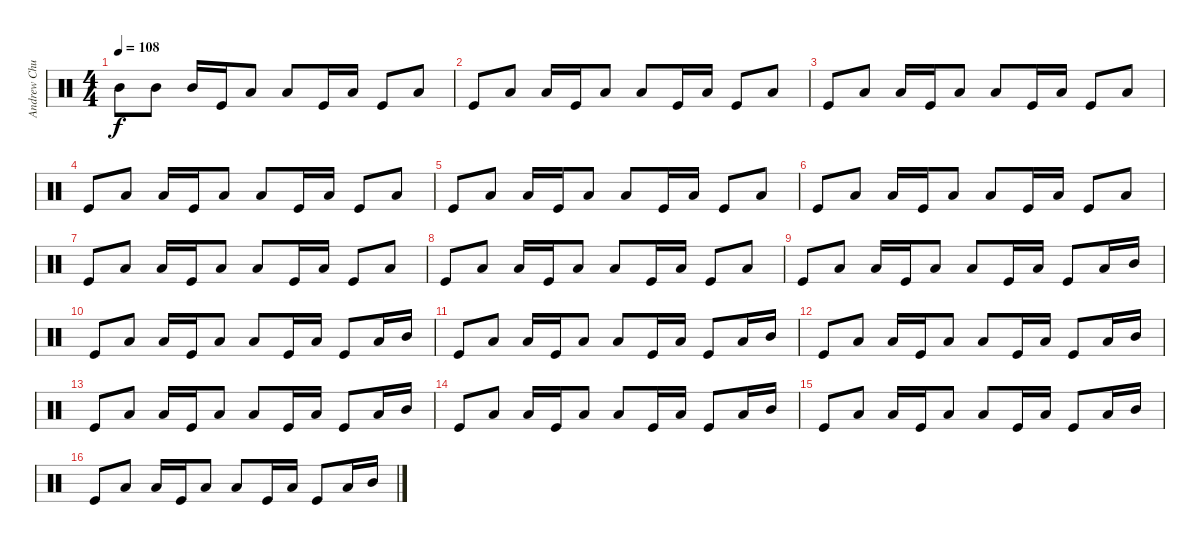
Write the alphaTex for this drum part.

\track ("Andrew Chudy - Bassdrum" "Andrew Chu") {instrument percussion}
\staff {score}
\articulation defaults
\ts (4 4)
\tempo 108
\clef neutral
\ks c "Mid Tom (hit)".8{dy f} "Mid Tom (hit)".8 "Mid Tom (hit)".16 "Kick (hit)".16 "Low Floor Tom (hit)".8 "Low Floor Tom (hit)".8 "Kick (hit)".16 "Low Floor Tom (hit)".16 "Kick (hit)".8 "Low Floor Tom (hit)".8
|
"Kick (hit)".8 "Low Floor Tom (hit)".8 "Low Floor Tom (hit)".16 "Kick (hit)".16 "Low Floor Tom (hit)".8 "Low Floor Tom (hit)".8 "Kick (hit)".16 "Low Floor Tom (hit)".16 "Kick (hit)".8 "Low Floor Tom (hit)".8 |
"Kick (hit)".8 "Low Floor Tom (hit)".8 "Low Floor Tom (hit)".16 "Kick (hit)".16 "Low Floor Tom (hit)".8 "Low Floor Tom (hit)".8 "Kick (hit)".16 "Low Floor Tom (hit)".16 "Kick (hit)".8 "Low Floor Tom (hit)".8 |
"Kick (hit)".8 "Low Floor Tom (hit)".8 "Low Floor Tom (hit)".16 "Kick (hit)".16 "Low Floor Tom (hit)".8 "Low Floor Tom (hit)".8 "Kick (hit)".16 "Low Floor Tom (hit)".16 "Kick (hit)".8 "Low Floor Tom (hit)".8 |
"Kick (hit)".8 "Low Floor Tom (hit)".8 "Low Floor Tom (hit)".16 "Kick (hit)".16 "Low Floor Tom (hit)".8 "Low Floor Tom (hit)".8 "Kick (hit)".16 "Low Floor Tom (hit)".16 "Kick (hit)".8 "Low Floor Tom (hit)".8 |
"Kick (hit)".8 "Low Floor Tom (hit)".8 "Low Floor Tom (hit)".16 "Kick (hit)".16 "Low Floor Tom (hit)".8 "Low Floor Tom (hit)".8 "Kick (hit)".16 "Low Floor Tom (hit)".16 "Kick (hit)".8 "Low Floor Tom (hit)".8 |
"Kick (hit)".8 "Low Floor Tom (hit)".8 "Low Floor Tom (hit)".16 "Kick (hit)".16 "Low Floor Tom (hit)".8 "Low Floor Tom (hit)".8 "Kick (hit)".16 "Low Floor Tom (hit)".16 "Kick (hit)".8 "Low Floor Tom (hit)".8 |
"Kick (hit)".8 "Low Floor Tom (hit)".8 "Low Floor Tom (hit)".16 "Kick (hit)".16 "Low Floor Tom (hit)".8 "Low Floor Tom (hit)".8 "Kick (hit)".16 "Low Floor Tom (hit)".16 "Kick (hit)".8 "Low Floor Tom (hit)".8 |
"Kick (hit)".8 "Low Floor Tom (hit)".8 "Low Floor Tom (hit)".16 "Kick (hit)".16 "Low Floor Tom (hit)".8 "Low Floor Tom (hit)".8 "Kick (hit)".16 "Low Floor Tom (hit)".16 "Kick (hit)".8 "Low Floor Tom (hit)".16 "Mid Tom (hit)".16 |
"Kick (hit)".8 "Low Floor Tom (hit)".8 "Low Floor Tom (hit)".16 "Kick (hit)".16 "Low Floor Tom (hit)".8 "Low Floor Tom (hit)".8 "Kick (hit)".16 "Low Floor Tom (hit)".16 "Kick (hit)".8 "Low Floor Tom (hit)".16 "Mid Tom (hit)".16 |
"Kick (hit)".8 "Low Floor Tom (hit)".8 "Low Floor Tom (hit)".16 "Kick (hit)".16 "Low Floor Tom (hit)".8 "Low Floor Tom (hit)".8 "Kick (hit)".16 "Low Floor Tom (hit)".16 "Kick (hit)".8 "Low Floor Tom (hit)".16 "Mid Tom (hit)".16 |
"Kick (hit)".8 "Low Floor Tom (hit)".8 "Low Floor Tom (hit)".16 "Kick (hit)".16 "Low Floor Tom (hit)".8 "Low Floor Tom (hit)".8 "Kick (hit)".16 "Low Floor Tom (hit)".16 "Kick (hit)".8 "Low Floor Tom (hit)".16 "Mid Tom (hit)".16 |
"Kick (hit)".8 "Low Floor Tom (hit)".8 "Low Floor Tom (hit)".16 "Kick (hit)".16 "Low Floor Tom (hit)".8 "Low Floor Tom (hit)".8 "Kick (hit)".16 "Low Floor Tom (hit)".16 "Kick (hit)".8 "Low Floor Tom (hit)".16 "Mid Tom (hit)".16 |
"Kick (hit)".8 "Low Floor Tom (hit)".8 "Low Floor Tom (hit)".16 "Kick (hit)".16 "Low Floor Tom (hit)".8 "Low Floor Tom (hit)".8 "Kick (hit)".16 "Low Floor Tom (hit)".16 "Kick (hit)".8 "Low Floor Tom (hit)".16 "Mid Tom (hit)".16 |
"Kick (hit)".8 "Low Floor Tom (hit)".8 "Low Floor Tom (hit)".16 "Kick (hit)".16 "Low Floor Tom (hit)".8 "Low Floor Tom (hit)".8 "Kick (hit)".16 "Low Floor Tom (hit)".16 "Kick (hit)".8 "Low Floor Tom (hit)".16 "Mid Tom (hit)".16 |
"Kick (hit)".8 "Low Floor Tom (hit)".8 "Low Floor Tom (hit)".16 "Kick (hit)".16 "Low Floor Tom (hit)".8 "Low Floor Tom (hit)".8 "Kick (hit)".16 "Low Floor Tom (hit)".16 "Kick (hit)".8 "Low Floor Tom (hit)".16 "Mid Tom (hit)".16
